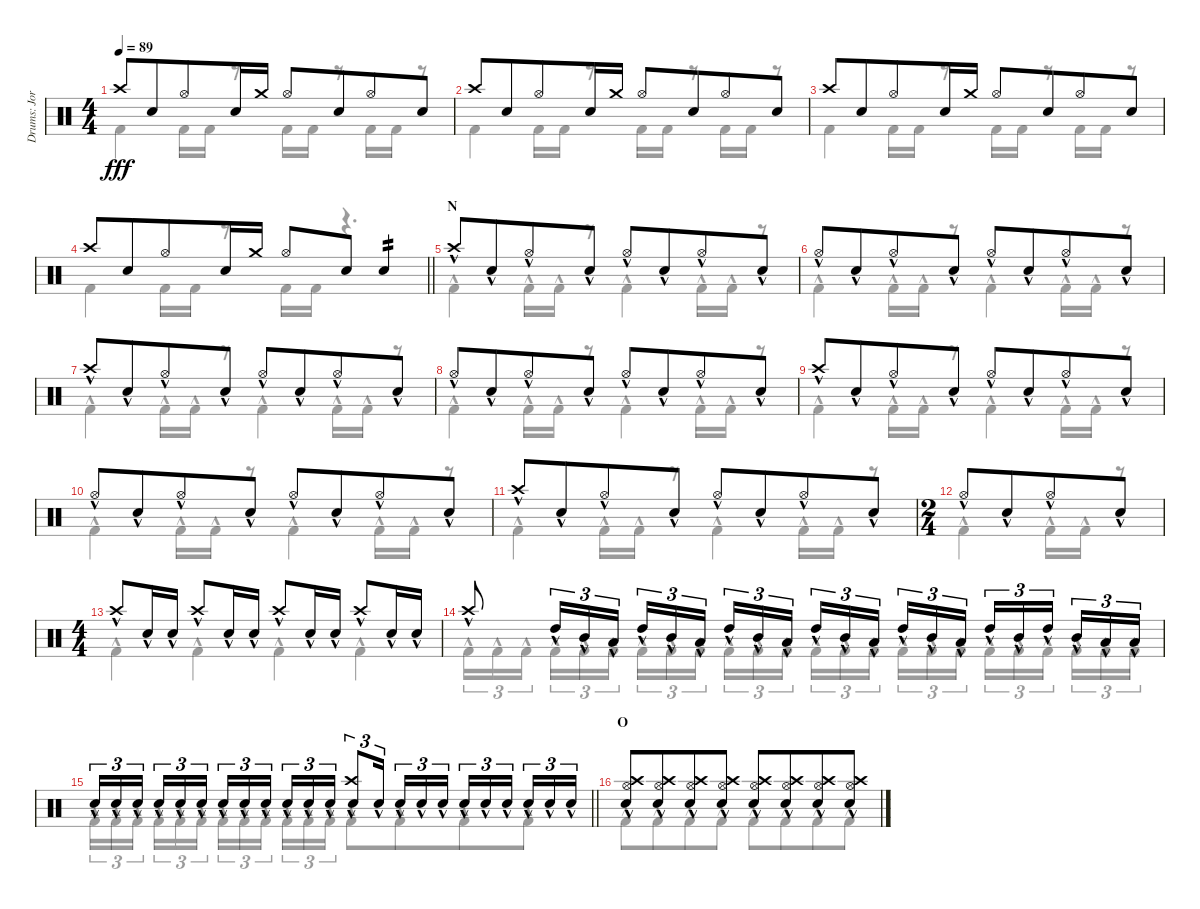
\track ("Drums: Jorg" "Drums: Jor") {instrument percussion}
\staff {score}
\articulation defaults
\voice
\ts (4 4)
\tempo 89
\clef neutral
\ks c "Crash high (hit)".8{dy fff} "Snare (hit) 2".8{beam merge} "Hi-Hat (open)".8 "Snare (hit) 2".16{beam merge} "Crash medium (hit)".16 "Hi-Hat (open)".8{beam merge} "Snare (hit) 2".8{beam merge} "Hi-Hat (open)".8 "Snare (hit) 2".8
|
"Crash high (hit)".8 "Snare (hit) 2".8{beam merge} "Hi-Hat (open)".8 "Snare (hit) 2".16{beam merge} "Crash medium (hit)".16 "Hi-Hat (open)".8{beam merge} "Snare (hit) 2".8{beam merge} "Hi-Hat (open)".8 "Snare (hit) 2".8 |
"Crash high (hit)".8 "Snare (hit) 2".8{beam merge} "Hi-Hat (open)".8 "Snare (hit) 2".16{beam merge} "Crash medium (hit)".16 "Hi-Hat (open)".8{beam merge} "Snare (hit) 2".8{beam merge} "Hi-Hat (open)".8 "Snare (hit) 2".8 |
\barLineRight lightlight "Crash high (hit)".8 "Snare (hit) 2".8{beam merge} "Hi-Hat (open)".8 "Snare (hit) 2".16{beam merge} "Crash medium (hit)".16 "Hi-Hat (open)".8{beam merge} "Snare (hit) 2".8 "Snare (hit) 2".4{tp 2}
|
\section ("" "N")
"Crash high (hit)"{hac}.8 "Snare (hit) 2"{hac}.8{beam merge} "Hi-Hat (open)"{hac}.8 "Snare (hit) 2"{hac}.8 "Hi-Hat (open)"{hac}.8 "Snare (hit) 2"{hac}.8{beam merge} "Hi-Hat (open)"{hac}.8 "Snare (hit) 2"{hac}.8 |
"Hi-Hat (open)"{hac}.8 "Snare (hit) 2"{hac}.8{beam merge} "Hi-Hat (open)"{hac}.8 "Snare (hit) 2"{hac}.8 "Hi-Hat (open)"{hac}.8 "Snare (hit) 2"{hac}.8{beam merge} "Hi-Hat (open)"{hac}.8 "Snare (hit) 2"{hac}.8 |
"Crash high (hit)"{hac}.8 "Snare (hit) 2"{hac}.8{beam merge} "Hi-Hat (open)"{hac}.8 "Snare (hit) 2"{hac}.8 "Hi-Hat (open)"{hac}.8 "Snare (hit) 2"{hac}.8{beam merge} "Hi-Hat (open)"{hac}.8 "Snare (hit) 2"{hac}.8 |
"Hi-Hat (open)"{hac}.8 "Snare (hit) 2"{hac}.8{beam merge} "Hi-Hat (open)"{hac}.8 "Snare (hit) 2"{hac}.8 "Hi-Hat (open)"{hac}.8 "Snare (hit) 2"{hac}.8{beam merge} "Hi-Hat (open)"{hac}.8 "Snare (hit) 2"{hac}.8 |
"Crash high (hit)"{hac}.8 "Snare (hit) 2"{hac}.8{beam merge} "Hi-Hat (open)"{hac}.8 "Snare (hit) 2"{hac}.8 "Hi-Hat (open)"{hac}.8 "Snare (hit) 2"{hac}.8{beam merge} "Hi-Hat (open)"{hac}.8 "Snare (hit) 2"{hac}.8 |
"Hi-Hat (open)"{hac}.8 "Snare (hit) 2"{hac}.8{beam merge} "Hi-Hat (open)"{hac}.8 "Snare (hit) 2"{hac}.8 "Hi-Hat (open)"{hac}.8 "Snare (hit) 2"{hac}.8{beam merge} "Hi-Hat (open)"{hac}.8 "Snare (hit) 2"{hac}.8 |
"Crash high (hit)"{hac}.8 "Snare (hit) 2"{hac}.8{beam merge} "Hi-Hat (open)"{hac}.8 "Snare (hit) 2"{hac}.8 "Hi-Hat (open)"{hac}.8 "Snare (hit) 2"{hac}.8{beam merge} "Hi-Hat (open)"{hac}.8 "Snare (hit) 2"{hac}.8 |
\ts (2 4)
"Hi-Hat (open)"{hac}.8 "Snare (hit) 2"{hac}.8{beam merge} "Hi-Hat (open)"{hac}.8 "Snare (hit) 2"{hac}.8 |
\ts (4 4)
"Crash high (hit)"{hac}.8 "Snare (hit) 2"{hac}.16 "Snare (hit) 2"{hac}.16 "Crash high (hit)"{hac}.8 "Snare (hit) 2"{hac}.16 "Snare (hit) 2"{hac}.16 "Crash high (hit)"{hac}.8 "Snare (hit) 2"{hac}.16 "Snare (hit) 2"{hac}.16 "Crash high (hit)"{hac}.8 "Snare (hit) 2"{hac}.16 "Snare (hit) 2"{hac}.16 |
"Crash high (hit)"{hac}.8 "High Tom (hit)"{hac}.16{tu (3 2)} "Mid Tom (hit)"{hac}.16{tu (3 2)} "Low Tom (hit)"{hac}.16{tu (3 2)} "High Tom (hit)"{hac}.16{tu (3 2)} "Mid Tom (hit)"{hac}.16{tu (3 2)} "Low Tom (hit)"{hac}.16{tu (3 2) beam splitsecondary} "High Tom (hit)"{hac}.16{tu (3 2)} "Mid Tom (hit)"{hac}.16{tu (3 2)} "Low Tom (hit)"{hac}.16{tu (3 2)} "High Tom (hit)"{hac}.16{tu (3 2)} "Mid Tom (hit)"{hac}.16{tu (3 2)} "Low Tom (hit)"{hac}.16{tu (3 2) beam splitsecondary} "High Tom (hit)"{hac}.16{tu (3 2)} "Mid Tom (hit)"{hac}.16{tu (3 2)} "Low Tom (hit)"{hac}.16{tu (3 2)} "High Tom (hit)"{hac}.16{tu (3 2)} "Mid Tom (hit)"{hac}.16{tu (3 2)} "High Tom (hit)"{hac}.16{tu (3 2) beam splitsecondary} "Mid Tom (hit)"{hac}.16{tu (3 2)} "Low Tom (hit)"{hac}.16{tu (3 2)} "Low Tom (hit)"{hac}.16{tu (3 2)} |
\barLineRight lightlight "Electric Snare (hit)"{hac}.16{tu (3 2)} "Electric Snare (hit)"{hac}.16{tu (3 2)} "Electric Snare (hit)"{hac}.16{tu (3 2) beam splitsecondary} "Electric Snare (hit)"{hac}.16{tu (3 2)} "Electric Snare (hit)"{hac}.16{tu (3 2)} "Electric Snare (hit)"{hac}.16{tu (3 2)} "Electric Snare (hit)"{hac}.16{tu (3 2)} "Electric Snare (hit)"{hac}.16{tu (3 2)} "Electric Snare (hit)"{hac}.16{tu (3 2) beam splitsecondary} "Electric Snare (hit)"{hac}.16{tu (3 2)} "Electric Snare (hit)"{hac}.16{tu (3 2)} "Electric Snare (hit)"{hac}.16{tu (3 2)}
("Crash high (hit)"{hac} "Snare (hit) 2"{hac}).8{tu (3 2)} "Electric Snare (hit)"{hac}.16{tu (3 2) beam splitsecondary} "Electric Snare (hit)"{hac}.16{tu (3 2)} "Electric Snare (hit)"{hac}.16{tu (3 2)} "Electric Snare (hit)"{hac}.16{tu (3 2)} "Electric Snare (hit)"{hac}.16{tu (3 2)} "Electric Snare (hit)"{hac}.16{tu (3 2)} "Electric Snare (hit)"{hac}.16{tu (3 2) beam splitsecondary} "Electric Snare (hit)"{hac}.16{tu (3 2)} "Electric Snare (hit)"{hac}.16{tu (3 2)} "Electric Snare (hit)"{hac}.16{tu (3 2)} |
\section ("" "O")
("Crash high (hit)"{hac} "Hi-Hat (open)"{hac} "Snare (hit) 2"{hac}).8 ("Crash high (hit)"{hac} "Hi-Hat (open)"{hac} "Snare (hit) 2"{hac}).8{beam merge} ("Crash high (hit)"{hac} "Hi-Hat (open)"{hac} "Snare (hit) 2"{hac}).8 ("Crash high (hit)"{hac} "Hi-Hat (open)"{hac} "Snare (hit) 2"{hac}).8 ("Crash high (hit)"{hac} "Hi-Hat (open)"{hac} "Snare (hit) 2"{hac}).8 ("Crash high (hit)"{hac} "Hi-Hat (open)"{hac} "Snare (hit) 2"{hac}).8{beam merge} ("Crash high (hit)"{hac} "Hi-Hat (open)"{hac} "Snare (hit) 2"{hac}).8 ("Crash high (hit)"{hac} "Hi-Hat (open)"{hac} "Snare (hit) 2"{hac}).8
\voice
\clef neutral
\ottava regular
\simile none
\ks c "Kick (hit) 2".4{dy fff} "Kick (hit) 2".16 "Kick (hit) 2".16
r.8 "Kick (hit) 2".16 "Kick (hit) 2".16 r.8 "Kick (hit) 2".16 "Kick (hit) 2".16 r.8 |
"Kick (hit) 2".4 "Kick (hit) 2".16 "Kick (hit) 2".16 r.8 "Kick (hit) 2".16 "Kick (hit) 2".16 r.8 "Kick (hit) 2".16 "Kick (hit) 2".16 r.8 |
"Kick (hit) 2".4 "Kick (hit) 2".16 "Kick (hit) 2".16 r.8 "Kick (hit) 2".16 "Kick (hit) 2".16 r.8 "Kick (hit) 2".16 "Kick (hit) 2".16 r.8 |
\barLineRight lightlight "Kick (hit) 2".4 "Kick (hit) 2".16 "Kick (hit) 2".16
r.8 "Kick (hit) 2".16 "Kick (hit) 2".16 r.4{d} |
"Kick (hit) 2"{hac}.4 "Kick (hit) 2"{hac}.16 "Kick (hit) 2"{hac}.16 r.8 "Kick (hit) 2"{hac}.4 "Kick (hit) 2"{hac}.16 "Kick (hit) 2"{hac}.16 r.8 |
"Kick (hit) 2"{hac}.4 "Kick (hit) 2"{hac}.16 "Kick (hit) 2"{hac}.16 r.8 "Kick (hit) 2"{hac}.4 "Kick (hit) 2"{hac}.16 "Kick (hit) 2"{hac}.16 r.8 |
"Kick (hit) 2"{hac}.4 "Kick (hit) 2"{hac}.16 "Kick (hit) 2"{hac}.16 r.8 "Kick (hit) 2"{hac}.4 "Kick (hit) 2"{hac}.16 "Kick (hit) 2"{hac}.16 r.8 |
"Kick (hit) 2"{hac}.4 "Kick (hit) 2"{hac}.16 "Kick (hit) 2"{hac}.16 r.8 "Kick (hit) 2"{hac}.4 "Kick (hit) 2"{hac}.16 "Kick (hit) 2"{hac}.16 r.8 |
"Kick (hit) 2"{hac}.4 "Kick (hit) 2"{hac}.16 "Kick (hit) 2"{hac}.16 r.8 "Kick (hit) 2"{hac}.4 "Kick (hit) 2"{hac}.16 "Kick (hit) 2"{hac}.16 r.8 |
"Kick (hit) 2"{hac}.4 "Kick (hit) 2"{hac}.16 "Kick (hit) 2"{hac}.16 r.8 "Kick (hit) 2"{hac}.4 "Kick (hit) 2"{hac}.16 "Kick (hit) 2"{hac}.16 r.8 |
"Kick (hit) 2"{hac}.4 "Kick (hit) 2"{hac}.16 "Kick (hit) 2"{hac}.16 r.8 "Kick (hit) 2"{hac}.4 "Kick (hit) 2"{hac}.16 "Kick (hit) 2"{hac}.16 r.8 |
"Kick (hit) 2"{hac}.4 "Kick (hit) 2"{hac}.16 "Kick (hit) 2"{hac}.16 r.8 |
"Kick (hit) 2"{hac}.4 "Kick (hit) 2"{hac}.4 "Kick (hit) 2"{hac}.4 "Kick (hit) 2"{hac}.4 |
"Kick (hit) 2"{hac}.16{tu (3 2)} "Kick (hit) 2"{hac}.16{tu (3 2)} "Kick (hit) 2"{hac}.16{tu (3 2) beam splitsecondary} "Kick (hit) 2"{hac}.16{tu (3 2)} "Kick (hit) 2"{hac}.16{tu (3 2)} "Kick (hit) 2"{hac}.16{tu (3 2)} "Kick (hit) 2"{hac}.16{tu (3 2)} "Kick (hit) 2"{hac}.16{tu (3 2)} "Kick (hit) 2"{hac}.16{tu (3 2) beam splitsecondary} "Kick (hit) 2"{hac}.16{tu (3 2)} "Kick (hit) 2"{hac}.16{tu (3 2)} "Kick (hit) 2"{hac}.16{tu (3 2)} "Kick (hit) 2"{hac}.16{tu (3 2)} "Kick (hit) 2"{hac}.16{tu (3 2)} "Kick (hit) 2"{hac}.16{tu (3 2) beam splitsecondary} "Kick (hit) 2"{hac}.16{tu (3 2)} "Kick (hit) 2"{hac}.16{tu (3 2)} "Kick (hit) 2"{hac}.16{tu (3 2)} "Kick (hit) 2"{hac}.16{tu (3 2)} "Kick (hit) 2"{hac}.16{tu (3 2)} "Kick (hit) 2"{hac}.16{tu (3 2) beam splitsecondary} "Kick (hit) 2"{hac}.16{tu (3 2)} "Kick (hit) 2"{hac}.16{tu (3 2)} "Kick (hit) 2"{hac}.16{tu (3 2)} |
\barLineRight lightlight "Kick (hit) 2"{hac}.16{tu (3 2)} "Kick (hit) 2"{hac}.16{tu (3 2)} "Kick (hit) 2"{hac}.16{tu (3 2) beam splitsecondary} "Kick (hit) 2"{hac}.16{tu (3 2)} "Kick (hit) 2"{hac}.16{tu (3 2)} "Kick (hit) 2"{hac}.16{tu (3 2)} "Kick (hit) 2"{hac}.16{tu (3 2)} "Kick (hit) 2"{hac}.16{tu (3 2)} "Kick (hit) 2"{hac}.16{tu (3 2) beam splitsecondary} "Kick (hit) 2"{hac}.16{tu (3 2)} "Kick (hit) 2"{hac}.16{tu (3 2)} "Kick (hit) 2"{hac}.16{tu (3 2)} "Kick (hit) 2"{hac}.8 "Kick (hit) 2"{hac}.8{beam merge} "Kick (hit) 2"{hac}.8 "Kick (hit) 2"{hac}.8
|
"Kick (hit) 2"{hac}.8 "Kick (hit) 2"{hac}.8{beam merge} "Kick (hit) 2"{hac}.8 "Kick (hit) 2"{hac}.8 "Kick (hit) 2"{hac}.8 "Kick (hit) 2"{hac}.8{beam merge} "Kick (hit) 2"{hac}.8 "Kick (hit) 2"{hac}.8
